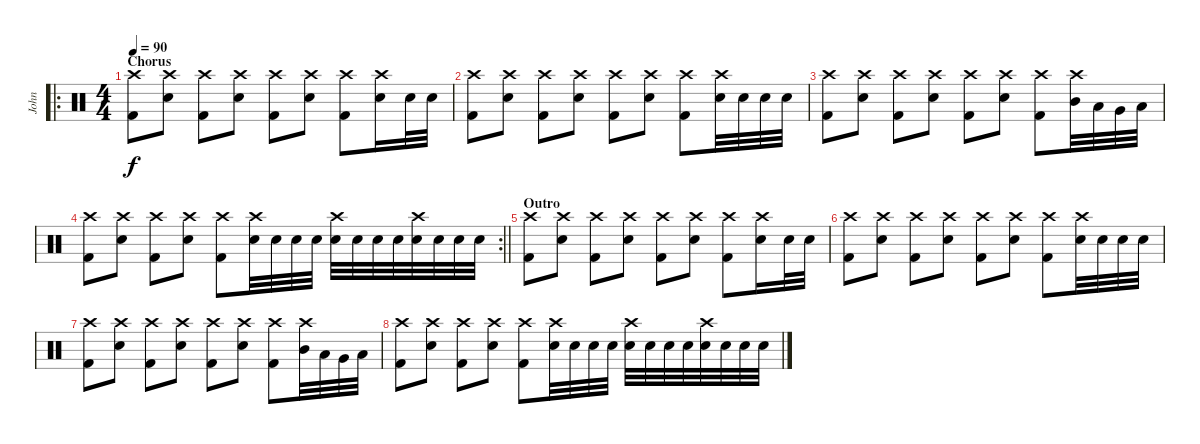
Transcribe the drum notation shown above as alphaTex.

\track ("John" "John") {instrument percussion}
\staff {score}
\articulation defaults
\ro
\ts (4 4)
\section ("" "Chorus")
\tempo 90
\clef neutral
\ks c
("Crash high (hit)" "Kick (hit) 2").8{dy f} ("Crash high (hit)" "Electric Snare (hit)").8 ("Crash high (hit)" "Kick (hit) 2").8 ("Crash high (hit)" "Electric Snare (hit)").8 ("Crash high (hit)" "Kick (hit) 2").8 ("Crash high (hit)" "Electric Snare (hit)").8 ("Crash high (hit)" "Kick (hit) 2").8 ("Crash high (hit)" "Electric Snare (hit)").16 "Electric Snare (hit)".32 "Electric Snare (hit)".32 |
("Crash high (hit)" "Kick (hit) 2").8 ("Crash high (hit)" "Electric Snare (hit)").8 ("Crash high (hit)" "Kick (hit) 2").8 ("Crash high (hit)" "Electric Snare (hit)").8 ("Crash high (hit)" "Kick (hit) 2").8 ("Crash high (hit)" "Electric Snare (hit)").8 ("Crash high (hit)" "Kick (hit) 2").8 ("Crash high (hit)" "Electric Snare (hit)").32 "Electric Snare (hit)".32 "Electric Snare (hit)".32 "Electric Snare (hit)".32 |
("Crash high (hit)" "Kick (hit) 2").8 ("Crash high (hit)" "Electric Snare (hit)").8 ("Crash high (hit)" "Kick (hit) 2").8 ("Crash high (hit)" "Electric Snare (hit)").8 ("Crash high (hit)" "Kick (hit) 2").8 ("Crash high (hit)" "Electric Snare (hit)").8 ("Crash high (hit)" "Kick (hit) 2").8 ("Crash high (hit)" "Mid Tom (hit)").32 "Low Tom (hit)".32 "Very Low Tom (hit)".32 "Low Floor Tom (hit)".32 |
\rc 2
\barLineRight lightlight
("Crash high (hit)" "Kick (hit) 2").8 ("Crash high (hit)" "Electric Snare (hit)").8 ("Crash high (hit)" "Kick (hit) 2").8 ("Crash high (hit)" "Electric Snare (hit)").8 ("Crash high (hit)" "Kick (hit) 2").8 ("Crash high (hit)" "Electric Snare (hit)").32 "Electric Snare (hit)".32 "Electric Snare (hit)".32 "Electric Snare (hit)".32 ("Crash high (hit)" "Electric Snare (hit)").32 "Electric Snare (hit)".32 "Electric Snare (hit)".32 "Electric Snare (hit)".32 ("Crash high (hit)" "Electric Snare (hit)").32 "Electric Snare (hit)".32 "Electric Snare (hit)".32 "Electric Snare (hit)".32 |
\section ("" "Outro")
("Crash high (hit)" "Kick (hit) 2").8 ("Crash high (hit)" "Electric Snare (hit)").8 ("Crash high (hit)" "Kick (hit) 2").8 ("Crash high (hit)" "Electric Snare (hit)").8 ("Crash high (hit)" "Kick (hit) 2").8 ("Crash high (hit)" "Electric Snare (hit)").8 ("Crash high (hit)" "Kick (hit) 2").8 ("Crash high (hit)" "Electric Snare (hit)").16 "Electric Snare (hit)".32 "Electric Snare (hit)".32 |
("Crash high (hit)" "Kick (hit) 2").8 ("Crash high (hit)" "Electric Snare (hit)").8 ("Crash high (hit)" "Kick (hit) 2").8 ("Crash high (hit)" "Electric Snare (hit)").8 ("Crash high (hit)" "Kick (hit) 2").8 ("Crash high (hit)" "Electric Snare (hit)").8 ("Crash high (hit)" "Kick (hit) 2").8 ("Crash high (hit)" "Electric Snare (hit)").32 "Electric Snare (hit)".32 "Electric Snare (hit)".32 "Electric Snare (hit)".32 |
("Crash high (hit)" "Kick (hit) 2").8 ("Crash high (hit)" "Electric Snare (hit)").8 ("Crash high (hit)" "Kick (hit) 2").8 ("Crash high (hit)" "Electric Snare (hit)").8 ("Crash high (hit)" "Kick (hit) 2").8 ("Crash high (hit)" "Electric Snare (hit)").8 ("Crash high (hit)" "Kick (hit) 2").8 ("Crash high (hit)" "Mid Tom (hit)").32 "Low Tom (hit)".32 "Very Low Tom (hit)".32 "Low Floor Tom (hit)".32 |
("Crash high (hit)" "Kick (hit) 2").8 ("Crash high (hit)" "Electric Snare (hit)").8 ("Crash high (hit)" "Kick (hit) 2").8 ("Crash high (hit)" "Electric Snare (hit)").8 ("Crash high (hit)" "Kick (hit) 2").8 ("Crash high (hit)" "Electric Snare (hit)").32 "Electric Snare (hit)".32 "Electric Snare (hit)".32 "Electric Snare (hit)".32 ("Crash high (hit)" "Electric Snare (hit)").32 "Electric Snare (hit)".32 "Electric Snare (hit)".32 "Electric Snare (hit)".32 ("Crash high (hit)" "Electric Snare (hit)").32 "Electric Snare (hit)".32 "Electric Snare (hit)".32 "Electric Snare (hit)".32
